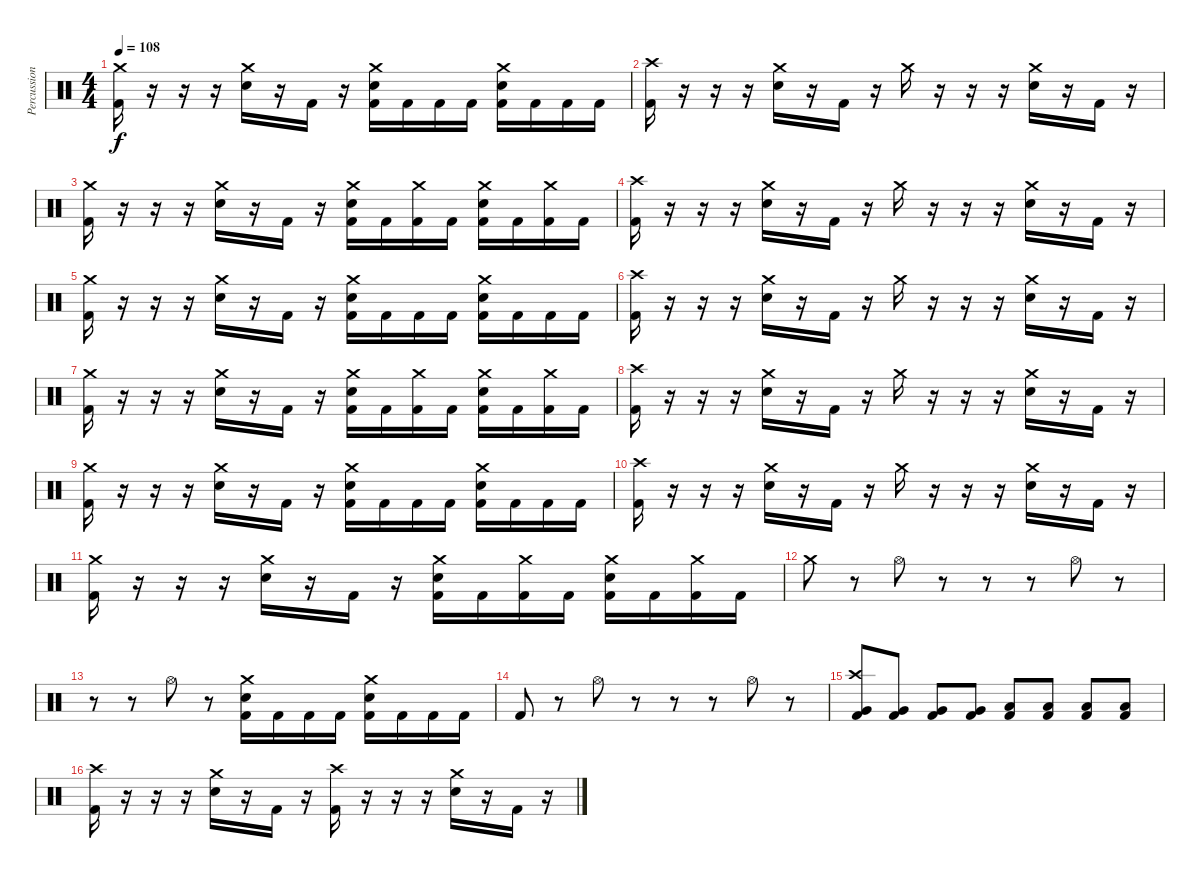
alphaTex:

\track ("Percussion" "Percussion") {instrument percussion}
\staff {score}
\articulation defaults
\ts (4 4)
\tempo 108
\clef neutral
\ks c
("Crash medium (hit)" "Kick (hit) 2").16{dy f} r.16 r.16 r.16 ("Crash medium (hit)" "Electric Snare (hit)").16 r.16 "Kick (hit) 2".16 r.16 ("Crash medium (hit)" "Electric Snare (hit)" "Kick (hit) 2").16 "Kick (hit) 2".16 "Kick (hit) 2".16 "Kick (hit) 2".16 ("Crash medium (hit)" "Electric Snare (hit)" "Kick (hit) 2").16 "Kick (hit) 2".16 "Kick (hit) 2".16 "Kick (hit) 2".16 |
("Crash high (hit)" "Kick (hit) 2").16 r.16 r.16 r.16 ("Crash medium (hit)" "Electric Snare (hit)").16 r.16 "Kick (hit) 2".16 r.16 "Crash medium (hit)".16 r.16 r.16 r.16 ("Crash medium (hit)" "Electric Snare (hit)").16 r.16 "Kick (hit) 2".16 r.16 |
("Crash medium (hit)" "Kick (hit) 2").16 r.16 r.16 r.16 ("Crash medium (hit)" "Electric Snare (hit)").16 r.16 "Kick (hit) 2".16 r.16 ("Crash medium (hit)" "Electric Snare (hit)" "Kick (hit) 2").16 "Kick (hit) 2".16 ("Crash medium (hit)" "Kick (hit) 2").16 "Kick (hit) 2".16 ("Crash medium (hit)" "Electric Snare (hit)" "Kick (hit) 2").16 "Kick (hit) 2".16 ("Crash medium (hit)" "Kick (hit) 2").16 "Kick (hit) 2".16 |
("Crash high (hit)" "Kick (hit) 2").16 r.16 r.16 r.16 ("Crash medium (hit)" "Electric Snare (hit)").16 r.16 "Kick (hit) 2".16 r.16 "Crash medium (hit)".16 r.16 r.16 r.16 ("Crash medium (hit)" "Electric Snare (hit)").16 r.16 "Kick (hit) 2".16 r.16 |
("Crash medium (hit)" "Kick (hit) 2").16 r.16 r.16 r.16 ("Crash medium (hit)" "Electric Snare (hit)").16 r.16 "Kick (hit) 2".16 r.16 ("Crash medium (hit)" "Electric Snare (hit)" "Kick (hit) 2").16 "Kick (hit) 2".16 "Kick (hit) 2".16 "Kick (hit) 2".16 ("Crash medium (hit)" "Electric Snare (hit)" "Kick (hit) 2").16 "Kick (hit) 2".16 "Kick (hit) 2".16 "Kick (hit) 2".16 |
("Crash high (hit)" "Kick (hit) 2").16 r.16 r.16 r.16 ("Crash medium (hit)" "Electric Snare (hit)").16 r.16 "Kick (hit) 2".16 r.16 "Crash medium (hit)".16 r.16 r.16 r.16 ("Crash medium (hit)" "Electric Snare (hit)").16 r.16 "Kick (hit) 2".16 r.16 |
("Crash medium (hit)" "Kick (hit) 2").16 r.16 r.16 r.16 ("Crash medium (hit)" "Electric Snare (hit)").16 r.16 "Kick (hit) 2".16 r.16 ("Crash medium (hit)" "Electric Snare (hit)" "Kick (hit) 2").16 "Kick (hit) 2".16 ("Crash medium (hit)" "Kick (hit) 2").16 "Kick (hit) 2".16 ("Crash medium (hit)" "Electric Snare (hit)" "Kick (hit) 2").16 "Kick (hit) 2".16 ("Crash medium (hit)" "Kick (hit) 2").16 "Kick (hit) 2".16 |
("Crash high (hit)" "Kick (hit) 2").16 r.16 r.16 r.16 ("Crash medium (hit)" "Electric Snare (hit)").16 r.16 "Kick (hit) 2".16 r.16 "Crash medium (hit)".16 r.16 r.16 r.16 ("Crash medium (hit)" "Electric Snare (hit)").16 r.16 "Kick (hit) 2".16 r.16 |
("Crash medium (hit)" "Kick (hit) 2").16 r.16 r.16 r.16 ("Crash medium (hit)" "Electric Snare (hit)").16 r.16 "Kick (hit) 2".16 r.16 ("Crash medium (hit)" "Electric Snare (hit)" "Kick (hit) 2").16 "Kick (hit) 2".16 "Kick (hit) 2".16 "Kick (hit) 2".16 ("Crash medium (hit)" "Electric Snare (hit)" "Kick (hit) 2").16 "Kick (hit) 2".16 "Kick (hit) 2".16 "Kick (hit) 2".16 |
("Crash high (hit)" "Kick (hit) 2").16 r.16 r.16 r.16 ("Crash medium (hit)" "Electric Snare (hit)").16 r.16 "Kick (hit) 2".16 r.16 "Crash medium (hit)".16 r.16 r.16 r.16 ("Crash medium (hit)" "Electric Snare (hit)").16 r.16 "Kick (hit) 2".16 r.16 |
("Crash medium (hit)" "Kick (hit) 2").16 r.16 r.16 r.16 ("Crash medium (hit)" "Electric Snare (hit)").16 r.16 "Kick (hit) 2".16 r.16 ("Crash medium (hit)" "Electric Snare (hit)" "Kick (hit) 2").16 "Kick (hit) 2".16 ("Crash medium (hit)" "Kick (hit) 2").16 "Kick (hit) 2".16 ("Crash medium (hit)" "Electric Snare (hit)" "Kick (hit) 2").16 "Kick (hit) 2".16 ("Crash medium (hit)" "Kick (hit) 2").16 "Kick (hit) 2".16 |
"Crash medium (hit)".8 r.8 "Hi-Hat (open)".8 r.8 r.8 r.8 "Hi-Hat (open)".8 r.8 |
r.8 r.8 "Hi-Hat (open)".8 r.8 ("Crash medium (hit)" "Electric Snare (hit)" "Kick (hit) 2").16 "Kick (hit) 2".16 "Kick (hit) 2".16 "Kick (hit) 2".16 ("Crash medium (hit)" "Electric Snare (hit)" "Kick (hit) 2").16 "Kick (hit) 2".16 "Kick (hit) 2".16 "Kick (hit) 2".16 |
"Kick (hit) 2".8 r.8 "Hi-Hat (open)".8 r.8 r.8 r.8 "Hi-Hat (open)".8 r.8 |
("Crash high (hit)" "Very Low Tom (hit)" "Kick (hit) 2").8 ("Very Low Tom (hit)" "Kick (hit) 2").8 ("Very Low Tom (hit)" "Kick (hit) 2").8 ("Very Low Tom (hit)" "Kick (hit) 2").8 ("Low Floor Tom (hit)" "Kick (hit) 2").8 ("Low Floor Tom (hit)" "Kick (hit) 2").8 ("Low Floor Tom (hit)" "Kick (hit) 2").8 ("Low Floor Tom (hit)" "Kick (hit) 2").8 |
("Crash high (hit)" "Kick (hit) 2").16 r.16 r.16 r.16 ("Crash medium (hit)" "Electric Snare (hit)").16 r.16 "Kick (hit) 2".16 r.16 ("Crash high (hit)" "Kick (hit) 2").16 r.16 r.16 r.16 ("Crash medium (hit)" "Electric Snare (hit)").16 r.16 "Kick (hit) 2".16 r.16
